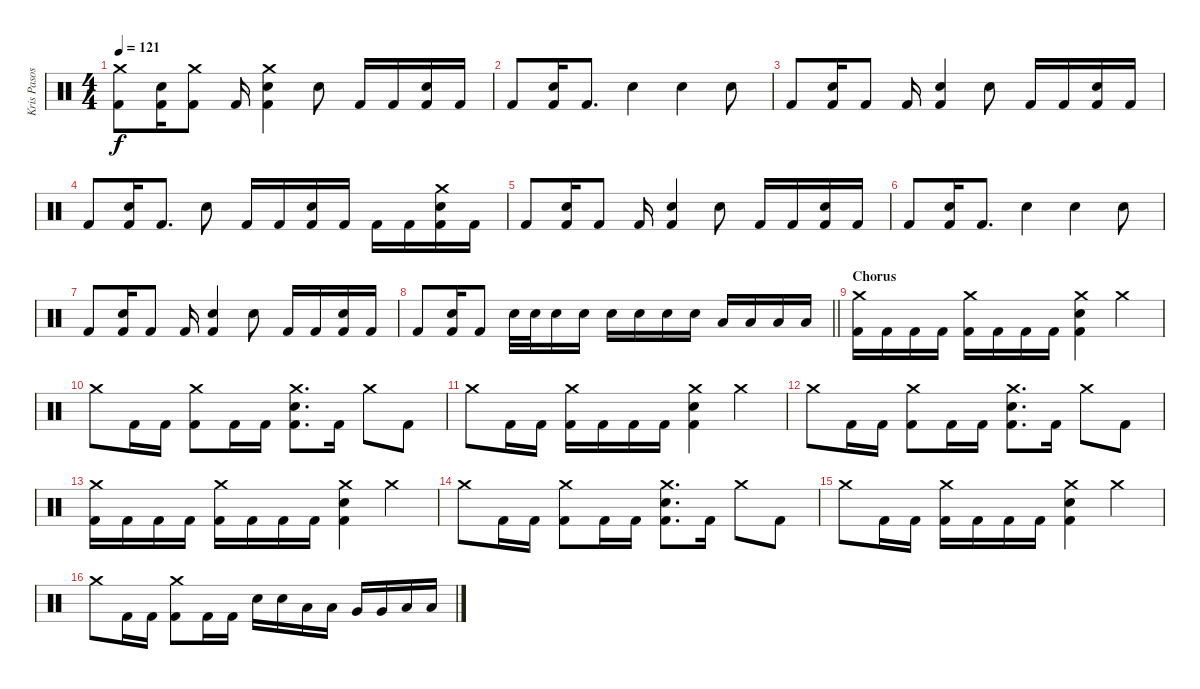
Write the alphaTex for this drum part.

\track ("Kris Pasos" "Kris Pasos") {instrument percussion}
\staff {score}
\articulation defaults
\ts (4 4)
\tempo 121
\clef neutral
\ks c
("Crash medium (hit)" "Kick (hit) 2").8{dy f} ("Snare (hit) 2" "Kick (hit) 2").16 ("Crash medium (hit)" "Kick (hit) 2").8 "Kick (hit) 2".16 ("Crash medium (hit)" "Snare (hit) 2" "Kick (hit) 2").4 "Snare (hit) 2".8 "Kick (hit) 2".16 "Kick (hit) 2".16 ("Snare (hit) 2" "Kick (hit) 2").16 "Kick (hit) 2".16 |
"Kick (hit) 2".8 ("Snare (hit) 2" "Kick (hit) 2").16 "Kick (hit) 2".8{d} "Snare (hit) 2".4 "Snare (hit) 2".4 "Snare (hit) 2".8 |
"Kick (hit) 2".8 ("Snare (hit) 2" "Kick (hit) 2").16 "Kick (hit) 2".8 "Kick (hit) 2".16 ("Snare (hit) 2" "Kick (hit) 2").4 "Snare (hit) 2".8 "Kick (hit) 2".16 "Kick (hit) 2".16 ("Snare (hit) 2" "Kick (hit) 2").16 "Kick (hit) 2".16 |
"Kick (hit) 2".8 ("Snare (hit) 2" "Kick (hit) 2").16 "Kick (hit) 2".8{d} "Snare (hit) 2".8 "Kick (hit) 2".16 "Kick (hit) 2".16 ("Snare (hit) 2" "Kick (hit) 2").16 "Kick (hit) 2".16 "Kick (hit) 2".16 "Kick (hit) 2".16 ("Crash medium (hit)" "Snare (hit) 2" "Kick (hit) 2").16 "Kick (hit) 2".16 |
"Kick (hit) 2".8 ("Snare (hit) 2" "Kick (hit) 2").16 "Kick (hit) 2".8 "Kick (hit) 2".16 ("Snare (hit) 2" "Kick (hit) 2").4 "Snare (hit) 2".8 "Kick (hit) 2".16 "Kick (hit) 2".16 ("Snare (hit) 2" "Kick (hit) 2").16 "Kick (hit) 2".16 |
"Kick (hit) 2".8 ("Snare (hit) 2" "Kick (hit) 2").16 "Kick (hit) 2".8{d} "Snare (hit) 2".4 "Snare (hit) 2".4 "Snare (hit) 2".8 |
"Kick (hit) 2".8 ("Snare (hit) 2" "Kick (hit) 2").16 "Kick (hit) 2".8 "Kick (hit) 2".16 ("Snare (hit) 2" "Kick (hit) 2").4 "Snare (hit) 2".8 "Kick (hit) 2".16 "Kick (hit) 2".16 ("Snare (hit) 2" "Kick (hit) 2").16 "Kick (hit) 2".16 |
\barLineRight lightlight "Kick (hit) 2".8
("Snare (hit) 2" "Kick (hit) 2").16 "Kick (hit) 2".8 "Snare (hit) 2".32 "Snare (hit) 2".32 "Snare (hit) 2".16 "Snare (hit) 2".16 "Snare (hit) 2".16 "Snare (hit) 2".16 "Snare (hit) 2".16 "Snare (hit) 2".16 "Low Tom (hit)".16 "Low Tom (hit)".16 "Low Floor Tom (hit)".16 "Low Floor Tom (hit)".16 |
\section ("" "Chorus")
("Crash medium (hit)" "Kick (hit) 2").16 "Kick (hit) 2".16 "Kick (hit) 2".16 "Kick (hit) 2".16 ("Crash medium (hit)" "Kick (hit) 2").16 "Kick (hit) 2".16 "Kick (hit) 2".16 "Kick (hit) 2".16 ("Crash medium (hit)" "Snare (hit) 2" "Kick (hit) 2").4 "Crash medium (hit)".4 |
"Crash medium (hit)".8 "Kick (hit) 2".16 "Kick (hit) 2".16 ("Crash medium (hit)" "Kick (hit) 2").8 "Kick (hit) 2".16 "Kick (hit) 2".16 ("Crash medium (hit)" "Snare (hit) 2" "Kick (hit) 2").8{d} "Kick (hit) 2".16 "Crash medium (hit)".8 "Kick (hit) 2".8 |
"Crash medium (hit)".8 "Kick (hit) 2".16 "Kick (hit) 2".16 ("Crash medium (hit)" "Kick (hit) 2").16 "Kick (hit) 2".16 "Kick (hit) 2".16 "Kick (hit) 2".16 ("Crash medium (hit)" "Snare (hit) 2" "Kick (hit) 2").4 "Crash medium (hit)".4 |
"Crash medium (hit)".8 "Kick (hit) 2".16 "Kick (hit) 2".16 ("Crash medium (hit)" "Kick (hit) 2").8 "Kick (hit) 2".16 "Kick (hit) 2".16 ("Crash medium (hit)" "Snare (hit) 2" "Kick (hit) 2").8{d} "Kick (hit) 2".16 "Crash medium (hit)".8 "Kick (hit) 2".8 |
("Crash medium (hit)" "Kick (hit) 2").16 "Kick (hit) 2".16 "Kick (hit) 2".16 "Kick (hit) 2".16 ("Crash medium (hit)" "Kick (hit) 2").16 "Kick (hit) 2".16 "Kick (hit) 2".16 "Kick (hit) 2".16 ("Crash medium (hit)" "Snare (hit) 2" "Kick (hit) 2").4 "Crash medium (hit)".4 |
"Crash medium (hit)".8 "Kick (hit) 2".16 "Kick (hit) 2".16 ("Crash medium (hit)" "Kick (hit) 2").8 "Kick (hit) 2".16 "Kick (hit) 2".16 ("Crash medium (hit)" "Snare (hit) 2" "Kick (hit) 2").8{d} "Kick (hit) 2".16 "Crash medium (hit)".8 "Kick (hit) 2".8 |
"Crash medium (hit)".8 "Kick (hit) 2".16 "Kick (hit) 2".16 ("Crash medium (hit)" "Kick (hit) 2").16 "Kick (hit) 2".16 "Kick (hit) 2".16 "Kick (hit) 2".16 ("Crash medium (hit)" "Snare (hit) 2" "Kick (hit) 2").4 "Crash medium (hit)".4 |
"Crash medium (hit)".8 "Kick (hit) 2".16 "Kick (hit) 2".16 ("Crash medium (hit)" "Kick (hit) 2").8 "Kick (hit) 2".16 "Kick (hit) 2".16 "Snare (hit) 2".16 "Snare (hit) 2".16 "Low Floor Tom (hit)".16 "Low Floor Tom (hit)".16 "Very Low Tom (hit)".16 "Very Low Tom (hit)".16 "Low Floor Tom (hit)".16 "Low Floor Tom (hit)".16
